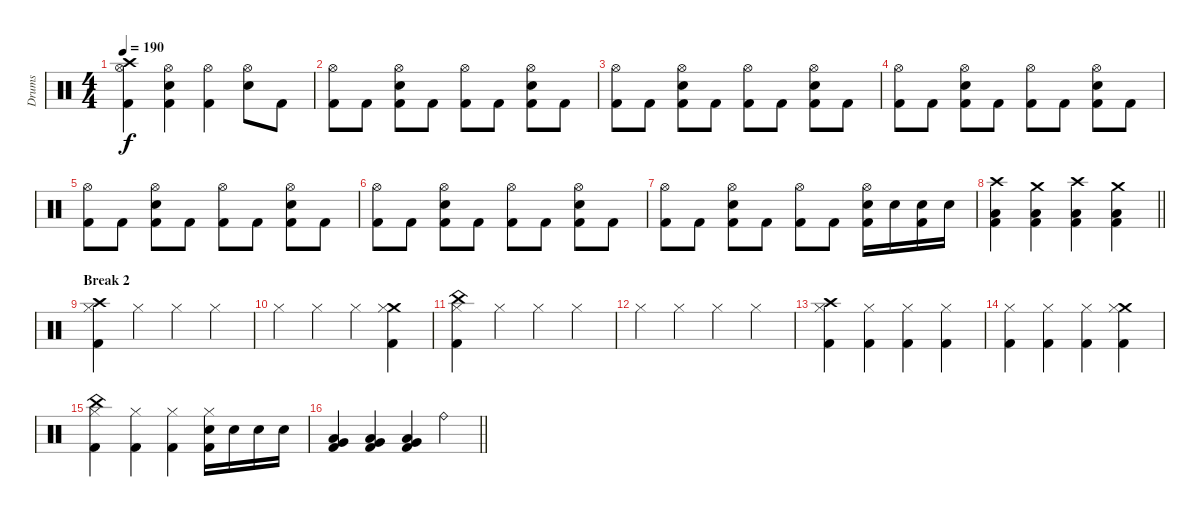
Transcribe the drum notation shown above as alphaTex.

\track ("Drums" "Drums") {instrument percussion}
\staff {score}
\articulation defaults
\ts (4 4)
\tempo 190
\clef neutral
\ks c
("Crash high (hit)" "Hi-Hat (open)" "Kick (hit) 2").4{dy f} ("Hi-Hat (open)" "Snare (hit) 2" "Kick (hit) 2").4 ("Hi-Hat (open)" "Kick (hit) 2").4 ("Hi-Hat (open)" "Snare (hit) 2").8 "Kick (hit) 2".8 |
("Hi-Hat (open)" "Kick (hit) 2").8 "Kick (hit) 2".8 ("Hi-Hat (open)" "Snare (hit) 2" "Kick (hit) 2").8 "Kick (hit) 2".8 ("Hi-Hat (open)" "Kick (hit) 2").8 "Kick (hit) 2".8 ("Hi-Hat (open)" "Snare (hit) 2" "Kick (hit) 2").8 "Kick (hit) 2".8 |
("Hi-Hat (open)" "Kick (hit) 2").8 "Kick (hit) 2".8 ("Hi-Hat (open)" "Snare (hit) 2" "Kick (hit) 2").8 "Kick (hit) 2".8 ("Hi-Hat (open)" "Kick (hit) 2").8 "Kick (hit) 2".8 ("Hi-Hat (open)" "Snare (hit) 2" "Kick (hit) 2").8 "Kick (hit) 2".8 |
("Hi-Hat (open)" "Kick (hit) 2").8 "Kick (hit) 2".8 ("Hi-Hat (open)" "Snare (hit) 2" "Kick (hit) 2").8 "Kick (hit) 2".8 ("Hi-Hat (open)" "Kick (hit) 2").8 "Kick (hit) 2".8 ("Hi-Hat (open)" "Snare (hit) 2" "Kick (hit) 2").8 "Kick (hit) 2".8 |
("Hi-Hat (open)" "Kick (hit) 2").8 "Kick (hit) 2".8 ("Hi-Hat (open)" "Snare (hit) 2" "Kick (hit) 2").8 "Kick (hit) 2".8 ("Hi-Hat (open)" "Kick (hit) 2").8 "Kick (hit) 2".8 ("Hi-Hat (open)" "Snare (hit) 2" "Kick (hit) 2").8 "Kick (hit) 2".8 |
("Hi-Hat (open)" "Kick (hit) 2").8 "Kick (hit) 2".8 ("Hi-Hat (open)" "Snare (hit) 2" "Kick (hit) 2").8 "Kick (hit) 2".8 ("Hi-Hat (open)" "Kick (hit) 2").8 "Kick (hit) 2".8 ("Hi-Hat (open)" "Snare (hit) 2" "Kick (hit) 2").8 "Kick (hit) 2".8 |
("Hi-Hat (open)" "Kick (hit) 2").8 "Kick (hit) 2".8 ("Hi-Hat (open)" "Snare (hit) 2" "Kick (hit) 2").8 "Kick (hit) 2".8 ("Hi-Hat (open)" "Kick (hit) 2").8 "Kick (hit) 2".8 ("Hi-Hat (open)" "Snare (hit) 2" "Kick (hit) 2").16 "Snare (hit) 2".16 ("Snare (hit) 2" "Kick (hit) 2").16 "Snare (hit) 2".16 |
\barLineRight lightlight
("Crash high (hit)" "Low Floor Tom (hit)" "Kick (hit) 2").4 ("Crash medium (hit)" "Low Floor Tom (hit)" "Kick (hit) 2").4 ("Crash high (hit)" "Low Floor Tom (hit)" "Kick (hit) 2").4 ("Crash medium (hit)" "Low Floor Tom (hit)" "Kick (hit) 2").4 |
\section ("" "Break 2")
("Crash high (hit)" "Hi-Hat (closed)" "Kick (hit) 2").4 "Hi-Hat (closed)".4 "Hi-Hat (closed)".4 "Hi-Hat (closed)".4 |
"Hi-Hat (closed)".4 "Hi-Hat (closed)".4 "Hi-Hat (closed)".4 ("Crash medium (hit)" "Hi-Hat (closed)" "Kick (hit) 2").4 |
("China (hit)" "Hi-Hat (closed)" "Kick (hit) 2").4 "Hi-Hat (closed)".4 "Hi-Hat (closed)".4 "Hi-Hat (closed)".4 |
"Hi-Hat (closed)".4 "Hi-Hat (closed)".4 "Hi-Hat (closed)".4 "Hi-Hat (closed)".4 |
("Crash high (hit)" "Hi-Hat (closed)" "Kick (hit) 2").4 ("Hi-Hat (closed)" "Kick (hit) 2").4 ("Hi-Hat (closed)" "Kick (hit) 2").4 ("Hi-Hat (closed)" "Kick (hit) 2").4 |
("Hi-Hat (closed)" "Kick (hit) 2").4 ("Hi-Hat (closed)" "Kick (hit) 2").4 ("Hi-Hat (closed)" "Kick (hit) 2").4 ("Crash medium (hit)" "Hi-Hat (closed)" "Kick (hit) 2").4 |
("China (hit)" "Hi-Hat (closed)" "Kick (hit) 2").4 ("Hi-Hat (closed)" "Kick (hit) 2").4 ("Hi-Hat (closed)" "Kick (hit) 2").4 ("Hi-Hat (closed)" "Snare (hit) 2" "Kick (hit) 2").16 "Snare (hit) 2".16 "Snare (hit) 2".16 "Snare (hit) 2".16 |
\barLineRight lightlight
("Very Low Tom (hit)" "Low Floor Tom (hit)" "Kick (hit) 2").4 ("Very Low Tom (hit)" "Low Floor Tom (hit)" "Kick (hit) 2").4 ("Very Low Tom (hit)" "Low Floor Tom (hit)" "Kick (hit) 2").4 "Ride (bell)".4
